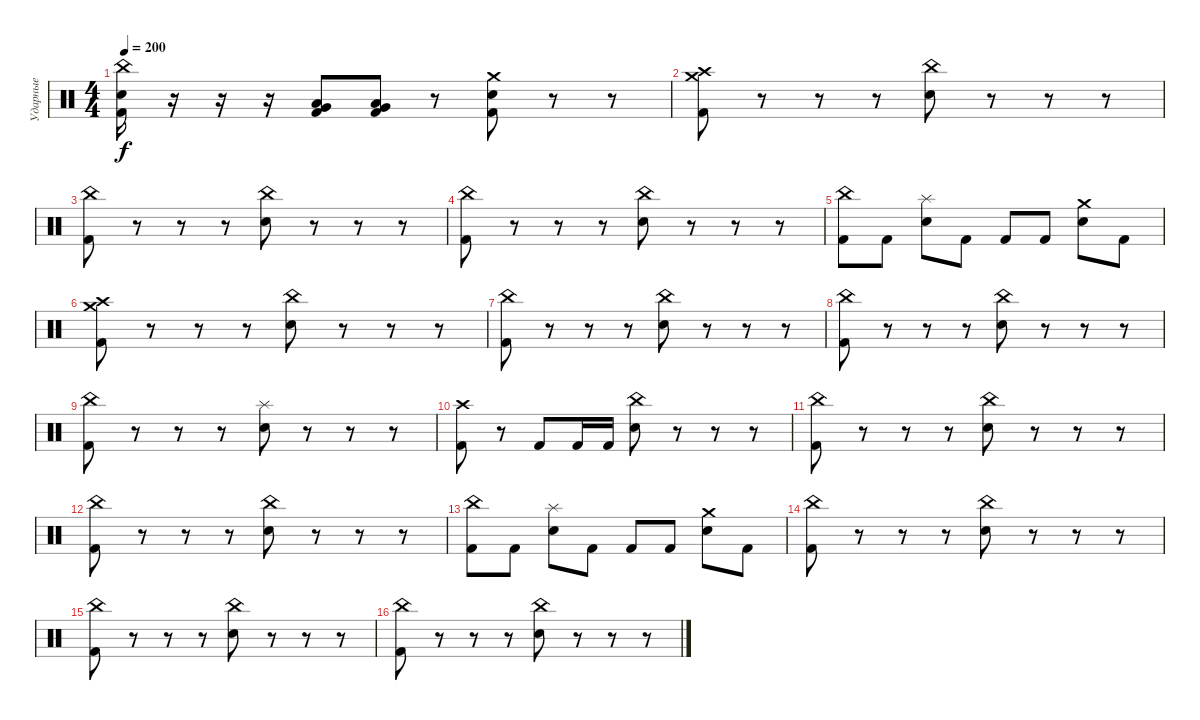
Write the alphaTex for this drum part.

\track ("Ударные" "Ударные") {instrument percussion}
\staff {score}
\articulation defaults
\ts (4 4)
\tempo 200
\clef neutral
\ks c
("Kick (hit) 2" "Electric Snare (hit)" "China (hit)").16{dy f} r.16 r.16 r.16 ("Kick (hit) 2" "Low Floor Tom (hit)" "Very Low Tom (hit)").8 ("Kick (hit) 2" "Low Floor Tom (hit)" "Very Low Tom (hit)").8 r.8 ("Kick (hit) 2" "Electric Snare (hit)" "Crash medium (hit)").8 r.8 r.8 |
("Kick (hit) 2" "Crash high (hit)" "Crash medium (hit)").8 r.8 r.8 r.8 ("Electric Snare (hit)" "China (hit)").8 r.8 r.8 r.8 |
("Kick (hit) 2" "China (hit)").8 r.8 r.8 r.8 ("Electric Snare (hit)" "China (hit)").8 r.8 r.8 r.8 |
("Kick (hit) 2" "China (hit)").8 r.8 r.8 r.8 ("Electric Snare (hit)" "China (hit)").8 r.8 r.8 r.8 |
("Kick (hit) 2" "China (hit)").8 "Kick (hit) 2".8 ("Electric Snare (hit)" "Splash (hit)").8 "Kick (hit) 2".8 "Kick (hit) 2".8 "Kick (hit) 2".8 ("Electric Snare (hit)" "Crash medium (hit)").8 "Kick (hit) 2".8 |
("Kick (hit) 2" "Crash medium (hit)" "Crash high (hit)").8 r.8 r.8 r.8 ("Electric Snare (hit)" "China (hit)").8 r.8 r.8 r.8 |
("Kick (hit) 2" "China (hit)").8 r.8 r.8 r.8 ("Electric Snare (hit)" "China (hit)").8 r.8 r.8 r.8 |
("Kick (hit) 2" "China (hit)").8 r.8 r.8 r.8 ("Electric Snare (hit)" "China (hit)").8 r.8 r.8 r.8 |
("Kick (hit) 2" "China (hit)").8 r.8 r.8 r.8 ("Electric Snare (hit)" "Splash (hit)").8 r.8 r.8 r.8 |
("Kick (hit) 2" "Crash high (hit)").8 r.8 "Kick (hit) 2".8 "Kick (hit) 2".16 "Kick (hit) 2".16 ("Electric Snare (hit)" "China (hit)").8 r.8 r.8 r.8 |
("Kick (hit) 2" "China (hit)").8 r.8 r.8 r.8 ("Electric Snare (hit)" "China (hit)").8 r.8 r.8 r.8 |
("Kick (hit) 2" "China (hit)").8 r.8 r.8 r.8 ("Electric Snare (hit)" "China (hit)").8 r.8 r.8 r.8 |
("Kick (hit) 2" "China (hit)").8 "Kick (hit) 2".8 ("Electric Snare (hit)" "Splash (hit)").8 "Kick (hit) 2".8 "Kick (hit) 2".8 "Kick (hit) 2".8 ("Electric Snare (hit)" "Crash medium (hit)").8 "Kick (hit) 2".8 |
("Kick (hit) 2" "China (hit)").8 r.8 r.8 r.8 ("Electric Snare (hit)" "China (hit)").8 r.8 r.8 r.8 |
("Kick (hit) 2" "China (hit)").8 r.8 r.8 r.8 ("Electric Snare (hit)" "China (hit)").8 r.8 r.8 r.8 |
("Kick (hit) 2" "China (hit)").8 r.8 r.8 r.8 ("Electric Snare (hit)" "China (hit)").8 r.8 r.8 r.8
